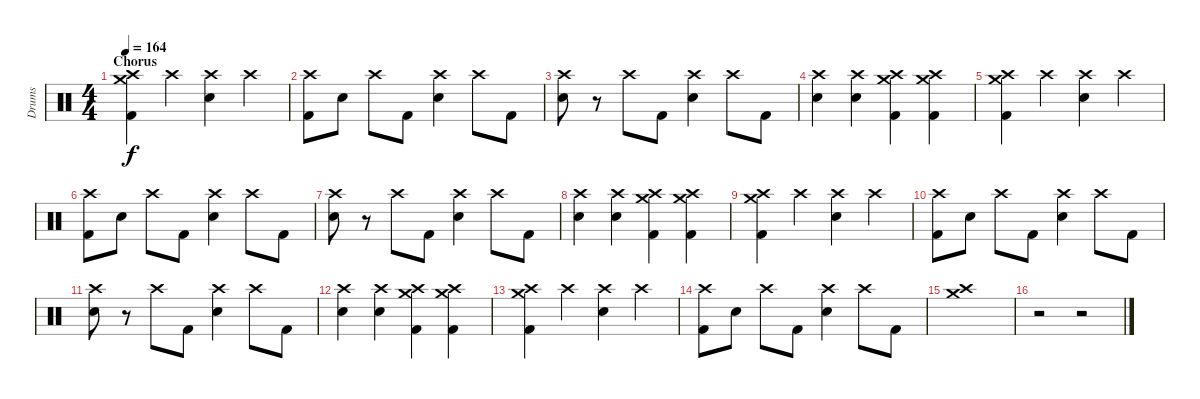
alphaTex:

\track ("Drums" "Drums") {instrument percussion}
\staff {score}
\articulation defaults
\ts (4 4)
\section ("" "Chorus")
\tempo 164
\clef neutral
\ks c
("Crash medium (hit)" "Crash high (hit)" "Kick (hit) 2").4{dy f} "Crash high (hit)".4 ("Crash high (hit)" "Electric Snare (hit)").4 "Crash high (hit)".4 |
("Crash high (hit)" "Kick (hit) 2").8 "Electric Snare (hit)".8 "Crash high (hit)".8 "Kick (hit) 2".8 ("Crash high (hit)" "Electric Snare (hit)").4 "Crash high (hit)".8 "Kick (hit) 2".8 |
("Crash high (hit)" "Electric Snare (hit)").8 r.8 "Crash high (hit)".8 "Kick (hit) 2".8 ("Crash high (hit)" "Electric Snare (hit)").4 "Crash high (hit)".8 "Kick (hit) 2".8 |
("Crash high (hit)" "Electric Snare (hit)").4 ("Crash high (hit)" "Electric Snare (hit)").4 ("Crash medium (hit)" "Crash high (hit)" "Kick (hit) 2").4 ("Crash medium (hit)" "Crash high (hit)" "Kick (hit) 2").4 |
("Crash medium (hit)" "Crash high (hit)" "Kick (hit) 2").4 "Crash high (hit)".4 ("Crash high (hit)" "Electric Snare (hit)").4 "Crash high (hit)".4 |
("Crash high (hit)" "Kick (hit) 2").8 "Electric Snare (hit)".8 "Crash high (hit)".8 "Kick (hit) 2".8 ("Crash high (hit)" "Electric Snare (hit)").4 "Crash high (hit)".8 "Kick (hit) 2".8 |
("Crash high (hit)" "Electric Snare (hit)").8 r.8 "Crash high (hit)".8 "Kick (hit) 2".8 ("Crash high (hit)" "Electric Snare (hit)").4 "Crash high (hit)".8 "Kick (hit) 2".8 |
("Crash high (hit)" "Electric Snare (hit)").4 ("Crash high (hit)" "Electric Snare (hit)").4 ("Crash medium (hit)" "Crash high (hit)" "Kick (hit) 2").4 ("Crash medium (hit)" "Crash high (hit)" "Kick (hit) 2").4 |
("Crash medium (hit)" "Crash high (hit)" "Kick (hit) 2").4 "Crash high (hit)".4 ("Crash high (hit)" "Electric Snare (hit)").4 "Crash high (hit)".4 |
("Crash high (hit)" "Kick (hit) 2").8 "Electric Snare (hit)".8 "Crash high (hit)".8 "Kick (hit) 2".8 ("Crash high (hit)" "Electric Snare (hit)").4 "Crash high (hit)".8 "Kick (hit) 2".8 |
("Crash high (hit)" "Electric Snare (hit)").8 r.8 "Crash high (hit)".8 "Kick (hit) 2".8 ("Crash high (hit)" "Electric Snare (hit)").4 "Crash high (hit)".8 "Kick (hit) 2".8 |
("Crash high (hit)" "Electric Snare (hit)").4 ("Crash high (hit)" "Electric Snare (hit)").4 ("Crash medium (hit)" "Crash high (hit)" "Kick (hit) 2").4 ("Crash medium (hit)" "Crash high (hit)" "Kick (hit) 2").4 |
("Crash medium (hit)" "Crash high (hit)" "Kick (hit) 2").4 "Crash high (hit)".4 ("Crash high (hit)" "Electric Snare (hit)").4 "Crash high (hit)".4 |
("Crash high (hit)" "Kick (hit) 2").8 "Electric Snare (hit)".8 "Crash high (hit)".8 "Kick (hit) 2".8 ("Crash high (hit)" "Electric Snare (hit)").4 "Crash high (hit)".8 "Kick (hit) 2".8 |
("Crash medium (hit)" "Crash high (hit)").1 |
r.2 r.2
